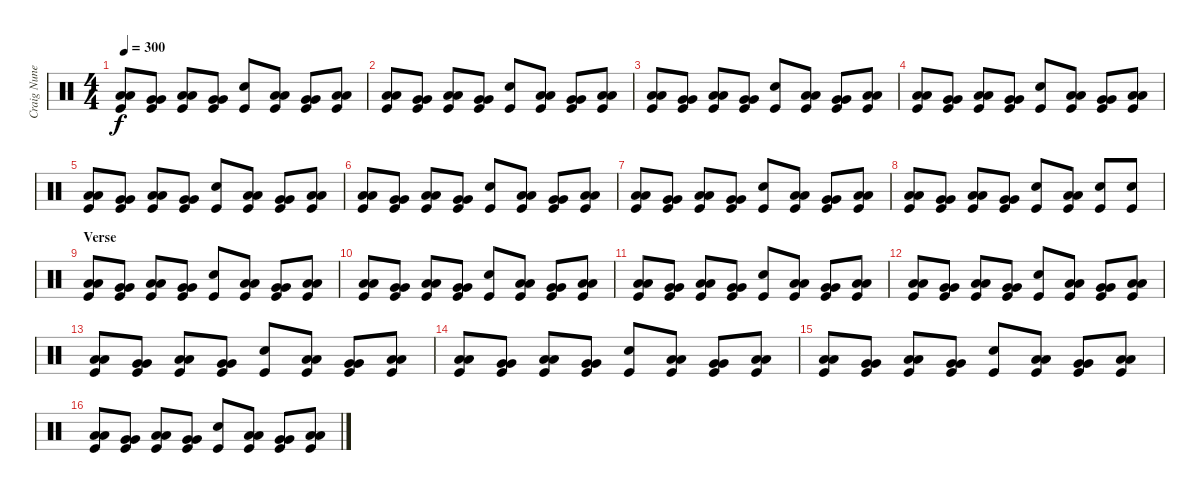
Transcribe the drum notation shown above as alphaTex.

\track ("Craig Nunenmacher" "Craig Nune") {instrument percussion}
\staff {score}
\articulation defaults
\ts (4 4)
\tempo 300
\clef neutral
\ks c
("Low Tom (hit)" "Low Tom (hit)" "Kick (hit)").8{dy f} ("Very Low Tom (hit)" "Very Low Tom (hit)" "Kick (hit)").8 ("Low Tom (hit)" "Low Tom (hit)" "Kick (hit)").8 ("Very Low Tom (hit)" "Very Low Tom (hit)" "Kick (hit)").8 ("Snare (hit) 2" "Kick (hit)").8 ("Low Tom (hit)" "Low Tom (hit)" "Kick (hit)").8 ("Very Low Tom (hit)" "Very Low Tom (hit)" "Kick (hit)").8 ("Low Tom (hit)" "Low Tom (hit)" "Kick (hit)").8 |
("Low Tom (hit)" "Low Tom (hit)" "Kick (hit)").8 ("Very Low Tom (hit)" "Very Low Tom (hit)" "Kick (hit)").8 ("Low Tom (hit)" "Low Tom (hit)" "Kick (hit)").8 ("Very Low Tom (hit)" "Very Low Tom (hit)" "Kick (hit)").8 ("Snare (hit) 2" "Kick (hit)").8 ("Low Tom (hit)" "Low Tom (hit)" "Kick (hit)").8 ("Very Low Tom (hit)" "Very Low Tom (hit)" "Kick (hit)").8 ("Low Tom (hit)" "Low Tom (hit)" "Kick (hit)").8 |
("Low Tom (hit)" "Low Tom (hit)" "Kick (hit)").8 ("Very Low Tom (hit)" "Very Low Tom (hit)" "Kick (hit)").8 ("Low Tom (hit)" "Low Tom (hit)" "Kick (hit)").8 ("Very Low Tom (hit)" "Very Low Tom (hit)" "Kick (hit)").8 ("Snare (hit) 2" "Kick (hit)").8 ("Low Tom (hit)" "Low Tom (hit)" "Kick (hit)").8 ("Very Low Tom (hit)" "Very Low Tom (hit)" "Kick (hit)").8 ("Low Tom (hit)" "Low Tom (hit)" "Kick (hit)").8 |
("Low Tom (hit)" "Low Tom (hit)" "Kick (hit)").8 ("Very Low Tom (hit)" "Very Low Tom (hit)" "Kick (hit)").8 ("Low Tom (hit)" "Low Tom (hit)" "Kick (hit)").8 ("Very Low Tom (hit)" "Very Low Tom (hit)" "Kick (hit)").8 ("Snare (hit) 2" "Kick (hit)").8 ("Low Tom (hit)" "Low Tom (hit)" "Kick (hit)").8 ("Very Low Tom (hit)" "Very Low Tom (hit)" "Kick (hit)").8 ("Low Tom (hit)" "Low Tom (hit)" "Kick (hit)").8 |
("Low Tom (hit)" "Low Tom (hit)" "Kick (hit)").8 ("Very Low Tom (hit)" "Very Low Tom (hit)" "Kick (hit)").8 ("Low Tom (hit)" "Low Tom (hit)" "Kick (hit)").8 ("Very Low Tom (hit)" "Very Low Tom (hit)" "Kick (hit)").8 ("Snare (hit) 2" "Kick (hit)").8 ("Low Tom (hit)" "Low Tom (hit)" "Kick (hit)").8 ("Very Low Tom (hit)" "Very Low Tom (hit)" "Kick (hit)").8 ("Low Tom (hit)" "Low Tom (hit)" "Kick (hit)").8 |
("Low Tom (hit)" "Low Tom (hit)" "Kick (hit)").8 ("Very Low Tom (hit)" "Very Low Tom (hit)" "Kick (hit)").8 ("Low Tom (hit)" "Low Tom (hit)" "Kick (hit)").8 ("Very Low Tom (hit)" "Very Low Tom (hit)" "Kick (hit)").8 ("Snare (hit) 2" "Kick (hit)").8 ("Low Tom (hit)" "Low Tom (hit)" "Kick (hit)").8 ("Very Low Tom (hit)" "Very Low Tom (hit)" "Kick (hit)").8 ("Low Tom (hit)" "Low Tom (hit)" "Kick (hit)").8 |
("Low Tom (hit)" "Low Tom (hit)" "Kick (hit)").8 ("Very Low Tom (hit)" "Very Low Tom (hit)" "Kick (hit)").8 ("Low Tom (hit)" "Low Tom (hit)" "Kick (hit)").8 ("Very Low Tom (hit)" "Very Low Tom (hit)" "Kick (hit)").8 ("Snare (hit) 2" "Kick (hit)").8 ("Low Tom (hit)" "Low Tom (hit)" "Kick (hit)").8 ("Very Low Tom (hit)" "Very Low Tom (hit)" "Kick (hit)").8 ("Low Tom (hit)" "Low Tom (hit)" "Kick (hit)").8 |
("Low Tom (hit)" "Low Tom (hit)" "Kick (hit)").8 ("Very Low Tom (hit)" "Very Low Tom (hit)" "Kick (hit)").8 ("Low Tom (hit)" "Low Tom (hit)" "Kick (hit)").8 ("Very Low Tom (hit)" "Very Low Tom (hit)" "Kick (hit)").8 ("Snare (hit) 2" "Kick (hit)").8 ("Low Tom (hit)" "Low Tom (hit)" "Kick (hit)").8 ("Snare (hit) 2" "Kick (hit)").8 ("Snare (hit) 2" "Kick (hit)").8 |
\section ("" "Verse")
("Low Tom (hit)" "Low Tom (hit)" "Kick (hit)").8 ("Very Low Tom (hit)" "Very Low Tom (hit)" "Kick (hit)").8 ("Low Tom (hit)" "Low Tom (hit)" "Kick (hit)").8 ("Very Low Tom (hit)" "Very Low Tom (hit)" "Kick (hit)").8 ("Snare (hit) 2" "Kick (hit)").8 ("Low Tom (hit)" "Low Tom (hit)" "Kick (hit)").8 ("Very Low Tom (hit)" "Very Low Tom (hit)" "Kick (hit)").8 ("Low Tom (hit)" "Low Tom (hit)" "Kick (hit)").8 |
("Low Tom (hit)" "Low Tom (hit)" "Kick (hit)").8 ("Very Low Tom (hit)" "Very Low Tom (hit)" "Kick (hit)").8 ("Low Tom (hit)" "Low Tom (hit)" "Kick (hit)").8 ("Very Low Tom (hit)" "Very Low Tom (hit)" "Kick (hit)").8 ("Snare (hit) 2" "Kick (hit)").8 ("Low Tom (hit)" "Low Tom (hit)" "Kick (hit)").8 ("Very Low Tom (hit)" "Very Low Tom (hit)" "Kick (hit)").8 ("Low Tom (hit)" "Low Tom (hit)" "Kick (hit)").8 |
("Low Tom (hit)" "Low Tom (hit)" "Kick (hit)").8 ("Very Low Tom (hit)" "Very Low Tom (hit)" "Kick (hit)").8 ("Low Tom (hit)" "Low Tom (hit)" "Kick (hit)").8 ("Very Low Tom (hit)" "Very Low Tom (hit)" "Kick (hit)").8 ("Snare (hit) 2" "Kick (hit)").8 ("Low Tom (hit)" "Low Tom (hit)" "Kick (hit)").8 ("Very Low Tom (hit)" "Very Low Tom (hit)" "Kick (hit)").8 ("Low Tom (hit)" "Low Tom (hit)" "Kick (hit)").8 |
("Low Tom (hit)" "Low Tom (hit)" "Kick (hit)").8 ("Very Low Tom (hit)" "Very Low Tom (hit)" "Kick (hit)").8 ("Low Tom (hit)" "Low Tom (hit)" "Kick (hit)").8 ("Very Low Tom (hit)" "Very Low Tom (hit)" "Kick (hit)").8 ("Snare (hit) 2" "Kick (hit)").8 ("Low Tom (hit)" "Low Tom (hit)" "Kick (hit)").8 ("Very Low Tom (hit)" "Very Low Tom (hit)" "Kick (hit)").8 ("Low Tom (hit)" "Low Tom (hit)" "Kick (hit)").8 |
("Low Tom (hit)" "Low Tom (hit)" "Kick (hit)").8 ("Very Low Tom (hit)" "Very Low Tom (hit)" "Kick (hit)").8 ("Low Tom (hit)" "Low Tom (hit)" "Kick (hit)").8 ("Very Low Tom (hit)" "Very Low Tom (hit)" "Kick (hit)").8 ("Snare (hit) 2" "Kick (hit)").8 ("Low Tom (hit)" "Low Tom (hit)" "Kick (hit)").8 ("Very Low Tom (hit)" "Very Low Tom (hit)" "Kick (hit)").8 ("Low Tom (hit)" "Low Tom (hit)" "Kick (hit)").8 |
("Low Tom (hit)" "Low Tom (hit)" "Kick (hit)").8 ("Very Low Tom (hit)" "Very Low Tom (hit)" "Kick (hit)").8 ("Low Tom (hit)" "Low Tom (hit)" "Kick (hit)").8 ("Very Low Tom (hit)" "Very Low Tom (hit)" "Kick (hit)").8 ("Snare (hit) 2" "Kick (hit)").8 ("Low Tom (hit)" "Low Tom (hit)" "Kick (hit)").8 ("Very Low Tom (hit)" "Very Low Tom (hit)" "Kick (hit)").8 ("Low Tom (hit)" "Low Tom (hit)" "Kick (hit)").8 |
("Low Tom (hit)" "Low Tom (hit)" "Kick (hit)").8 ("Very Low Tom (hit)" "Very Low Tom (hit)" "Kick (hit)").8 ("Low Tom (hit)" "Low Tom (hit)" "Kick (hit)").8 ("Very Low Tom (hit)" "Very Low Tom (hit)" "Kick (hit)").8 ("Snare (hit) 2" "Kick (hit)").8 ("Low Tom (hit)" "Low Tom (hit)" "Kick (hit)").8 ("Very Low Tom (hit)" "Very Low Tom (hit)" "Kick (hit)").8 ("Low Tom (hit)" "Low Tom (hit)" "Kick (hit)").8 |
("Low Tom (hit)" "Low Tom (hit)" "Kick (hit)").8 ("Very Low Tom (hit)" "Very Low Tom (hit)" "Kick (hit)").8 ("Low Tom (hit)" "Low Tom (hit)" "Kick (hit)").8 ("Very Low Tom (hit)" "Very Low Tom (hit)" "Kick (hit)").8 ("Snare (hit) 2" "Kick (hit)").8 ("Low Tom (hit)" "Low Tom (hit)" "Kick (hit)").8 ("Very Low Tom (hit)" "Very Low Tom (hit)" "Kick (hit)").8 ("Low Tom (hit)" "Low Tom (hit)" "Kick (hit)").8
